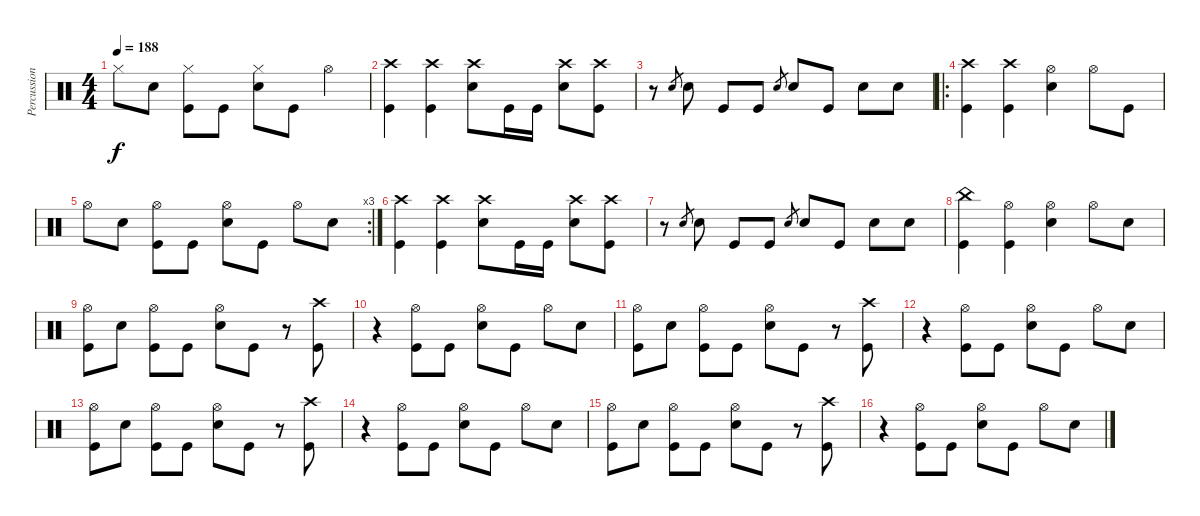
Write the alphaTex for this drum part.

\track ("Percussion" "Percussion") {instrument percussion}
\staff {score}
\articulation defaults
\ts (4 4)
\tempo 188
\clef neutral
\ks c "Hi-Hat (closed)".8{dy f} "Snare (hit) 2".8
("Kick (hit)" "Hi-Hat (closed)").8 "Kick (hit)".8 ("Snare (hit) 2" "Hi-Hat (closed)").8 "Kick (hit)".8 "Hi-Hat (open)".4 |
("Kick (hit)" "Crash high (hit)").4 ("Crash high (hit)" "Kick (hit)").4 ("Snare (hit) 2" "Crash high (hit)").8 "Kick (hit)".16 "Kick (hit)".16 ("Snare (hit) 2" "Crash high (hit)").8 ("Kick (hit)" "Crash high (hit)").8 |
r.8 "Snare (hit) 2".8{gr} "Snare (hit) 2".8 "Kick (hit)".8 "Kick (hit)".8 "Snare (hit) 2".8{gr} "Snare (hit) 2".8 "Kick (hit)".8 "Snare (hit) 2".8 "Snare (hit) 2".8 |
\ro
("Crash high (hit)" "Kick (hit)").4 ("Crash high (hit)" "Kick (hit)").4 ("Snare (hit) 2" "Hi-Hat (open)").4 "Hi-Hat (open)".8 "Kick (hit)".8 |
\rc 3 "Hi-Hat (open)".8 "Snare (hit) 2".8
("Kick (hit)" "Hi-Hat (open)").8 "Kick (hit)".8 ("Snare (hit) 2" "Hi-Hat (open)").8 "Kick (hit)".8 "Hi-Hat (open)".8 "Snare (hit) 2".8 |
("Kick (hit)" "Crash high (hit)").4 ("Crash high (hit)" "Kick (hit)").4 ("Snare (hit) 2" "Crash high (hit)").8 "Kick (hit)".16 "Kick (hit)".16 ("Snare (hit) 2" "Crash high (hit)").8 ("Kick (hit)" "Crash high (hit)").8 |
r.8 "Snare (hit) 2".8{gr} "Snare (hit) 2".8 "Kick (hit)".8 "Kick (hit)".8 "Snare (hit) 2".8{gr} "Snare (hit) 2".8 "Kick (hit)".8 "Snare (hit) 2".8 "Snare (hit) 2".8 |
("Kick (hit)" "China (hit)").4 ("Kick (hit)" "Hi-Hat (open)").4 ("Snare (hit) 2" "Hi-Hat (open)").4 "Hi-Hat (open)".8 "Snare (hit) 2".8 |
("Kick (hit)" "Hi-Hat (open)").8 "Snare (hit) 2".8 ("Kick (hit)" "Hi-Hat (open)").8 "Kick (hit)".8 ("Snare (hit) 2" "Hi-Hat (open)").8 "Kick (hit)".8 r.8 ("Kick (hit)" "Crash high (hit)").8 |
r.4 ("Kick (hit)" "Hi-Hat (open)").8 "Kick (hit)".8 ("Snare (hit) 2" "Hi-Hat (open)").8 "Kick (hit)".8 "Hi-Hat (open)".8 "Snare (hit) 2".8 |
("Kick (hit)" "Hi-Hat (open)").8 "Snare (hit) 2".8 ("Kick (hit)" "Hi-Hat (open)").8 "Kick (hit)".8 ("Snare (hit) 2" "Hi-Hat (open)").8 "Kick (hit)".8 r.8 ("Kick (hit)" "Crash high (hit)").8 |
r.4 ("Kick (hit)" "Hi-Hat (open)").8 "Kick (hit)".8 ("Snare (hit) 2" "Hi-Hat (open)").8 "Kick (hit)".8 "Hi-Hat (open)".8 "Snare (hit) 2".8 |
("Kick (hit)" "Hi-Hat (open)").8 "Snare (hit) 2".8 ("Kick (hit)" "Hi-Hat (open)").8 "Kick (hit)".8 ("Snare (hit) 2" "Hi-Hat (open)").8 "Kick (hit)".8 r.8 ("Kick (hit)" "Crash high (hit)").8 |
r.4 ("Kick (hit)" "Hi-Hat (open)").8 "Kick (hit)".8 ("Snare (hit) 2" "Hi-Hat (open)").8 "Kick (hit)".8 "Hi-Hat (open)".8 "Snare (hit) 2".8 |
("Kick (hit)" "Hi-Hat (open)").8 "Snare (hit) 2".8 ("Kick (hit)" "Hi-Hat (open)").8 "Kick (hit)".8 ("Snare (hit) 2" "Hi-Hat (open)").8 "Kick (hit)".8 r.8 ("Kick (hit)" "Crash high (hit)").8 |
r.4 ("Kick (hit)" "Hi-Hat (open)").8 "Kick (hit)".8 ("Snare (hit) 2" "Hi-Hat (open)").8 "Kick (hit)".8 "Hi-Hat (open)".8 "Snare (hit) 2".8
